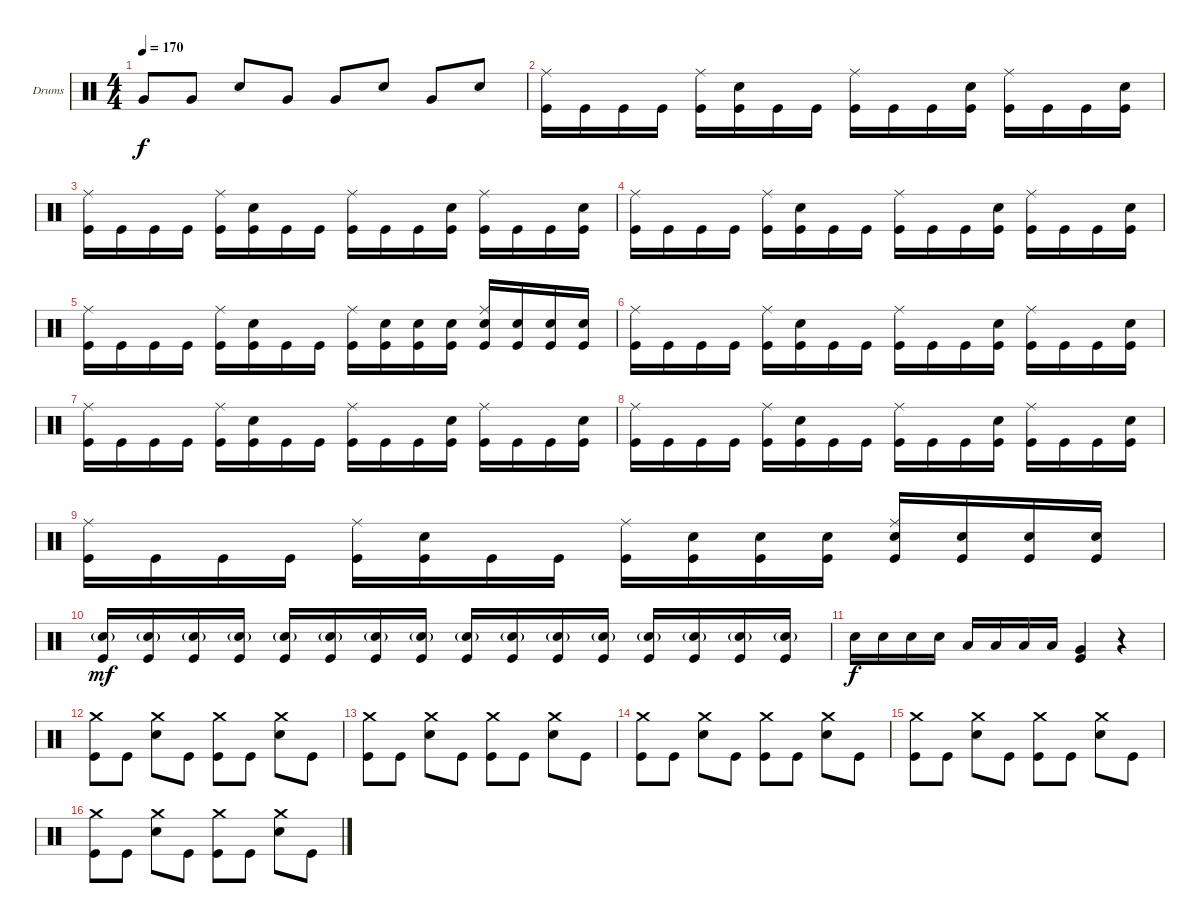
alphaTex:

\defaultSystemsLayout 4
\bracketExtendMode groupsimilarinstruments
\firstSystemTrackNameOrientation horizontal
\otherSystemsTrackNameOrientation horizontal
\track ("Drumkit" "Drums") {instrument percussion}
\staff {score}
\articulation defaults
\ts (4 4)
\tempo 170
\clef neutral
\scale
0.333333
\ks c "Very Low Tom (hit)".8{dy f} "Very Low Tom (hit)".8 "Snare (hit) 2".8 "Very Low Tom (hit)".8 "Very Low Tom (hit)".8 "Snare (hit) 2".8 "Very Low Tom (hit)".8 "Snare (hit) 2".8
|
\scale
0.333333 ("Ride (middle)" "Kick (hit)").16 "Kick (hit)".16 "Kick (hit)".16 "Kick (hit)".16 ("Ride (middle)" "Kick (hit)").16 ("Snare (hit) 2" "Kick (hit)").16 "Kick (hit)".16 "Kick (hit)".16 ("Ride (middle)" "Kick (hit)").16 "Kick (hit)".16 "Kick (hit)".16 ("Snare (hit) 2" "Kick (hit)").16 ("Ride (middle)" "Kick (hit)").16 "Kick (hit)".16 "Kick (hit)".16 ("Snare (hit) 2" "Kick (hit)").16 |
\scale
0.333333 ("Ride (middle)" "Kick (hit)").16 "Kick (hit)".16 "Kick (hit)".16 "Kick (hit)".16 ("Ride (middle)" "Kick (hit)").16 ("Snare (hit) 2" "Kick (hit)").16 "Kick (hit)".16 "Kick (hit)".16 ("Ride (middle)" "Kick (hit)").16 "Kick (hit)".16 "Kick (hit)".16 ("Snare (hit) 2" "Kick (hit)").16 ("Ride (middle)" "Kick (hit)").16 "Kick (hit)".16 "Kick (hit)".16 ("Snare (hit) 2" "Kick (hit)").16 |
\scale
0.333333 ("Ride (middle)" "Kick (hit)").16 "Kick (hit)".16 "Kick (hit)".16 "Kick (hit)".16 ("Ride (middle)" "Kick (hit)").16 ("Snare (hit) 2" "Kick (hit)").16 "Kick (hit)".16 "Kick (hit)".16 ("Ride (middle)" "Kick (hit)").16 "Kick (hit)".16 "Kick (hit)".16 ("Snare (hit) 2" "Kick (hit)").16 ("Ride (middle)" "Kick (hit)").16 "Kick (hit)".16 "Kick (hit)".16 ("Snare (hit) 2" "Kick (hit)").16 |
\scale
0.333333 ("Ride (middle)" "Kick (hit)").16 "Kick (hit)".16 "Kick (hit)".16 "Kick (hit)".16 ("Ride (middle)" "Kick (hit)").16 ("Snare (hit) 2" "Kick (hit)").16 "Kick (hit)".16 "Kick (hit)".16 ("Ride (middle)" "Kick (hit)").16 ("Kick (hit)" "Snare (hit) 2").16 ("Kick (hit)" "Snare (hit) 2").16 ("Snare (hit) 2" "Kick (hit)").16 ("Ride (middle)" "Kick (hit)" "Snare (hit) 2").16 ("Kick (hit)" "Snare (hit) 2").16 ("Kick (hit)" "Snare (hit) 2").16 ("Snare (hit) 2" "Kick (hit)").16 |
\scale
0.333333 ("Ride (middle)" "Kick (hit)").16 "Kick (hit)".16 "Kick (hit)".16 "Kick (hit)".16 ("Ride (middle)" "Kick (hit)").16 ("Snare (hit) 2" "Kick (hit)").16 "Kick (hit)".16 "Kick (hit)".16 ("Ride (middle)" "Kick (hit)").16 "Kick (hit)".16 "Kick (hit)".16 ("Snare (hit) 2" "Kick (hit)").16 ("Ride (middle)" "Kick (hit)").16 "Kick (hit)".16 "Kick (hit)".16 ("Snare (hit) 2" "Kick (hit)").16 |
\scale
0.333333 ("Ride (middle)" "Kick (hit)").16 "Kick (hit)".16 "Kick (hit)".16 "Kick (hit)".16 ("Ride (middle)" "Kick (hit)").16 ("Snare (hit) 2" "Kick (hit)").16 "Kick (hit)".16 "Kick (hit)".16 ("Ride (middle)" "Kick (hit)").16 "Kick (hit)".16 "Kick (hit)".16 ("Snare (hit) 2" "Kick (hit)").16 ("Ride (middle)" "Kick (hit)").16 "Kick (hit)".16 "Kick (hit)".16 ("Snare (hit) 2" "Kick (hit)").16 |
\scale
0.333333 ("Ride (middle)" "Kick (hit)").16 "Kick (hit)".16 "Kick (hit)".16 "Kick (hit)".16 ("Ride (middle)" "Kick (hit)").16 ("Snare (hit) 2" "Kick (hit)").16 "Kick (hit)".16 "Kick (hit)".16 ("Ride (middle)" "Kick (hit)").16 "Kick (hit)".16 "Kick (hit)".16 ("Snare (hit) 2" "Kick (hit)").16 ("Ride (middle)" "Kick (hit)").16 "Kick (hit)".16 "Kick (hit)".16 ("Snare (hit) 2" "Kick (hit)").16 |
\scale
0.333333 ("Ride (middle)" "Kick (hit)").16 "Kick (hit)".16 "Kick (hit)".16 "Kick (hit)".16 ("Ride (middle)" "Kick (hit)").16 ("Snare (hit) 2" "Kick (hit)").16 "Kick (hit)".16 "Kick (hit)".16 ("Ride (middle)" "Kick (hit)").16 ("Kick (hit)" "Snare (hit) 2").16 ("Kick (hit)" "Snare (hit) 2").16 ("Snare (hit) 2" "Kick (hit)").16 ("Ride (middle)" "Kick (hit)" "Snare (hit) 2").16 ("Kick (hit)" "Snare (hit) 2").16 ("Kick (hit)" "Snare (hit) 2").16 ("Snare (hit) 2" "Kick (hit)").16 |
\scale
0.333333 ("Snare (hit) 2"{g} "Kick (hit)").16{dy mf} ("Snare (hit) 2"{g} "Kick (hit)").16 ("Snare (hit) 2"{g} "Kick (hit)").16 ("Snare (hit) 2"{g} "Kick (hit)").16 ("Snare (hit) 2"{g} "Kick (hit)").16 ("Snare (hit) 2"{g} "Kick (hit)").16 ("Snare (hit) 2"{g} "Kick (hit)").16 ("Snare (hit) 2"{g} "Kick (hit)").16 ("Snare (hit) 2"{g} "Kick (hit)").16 ("Snare (hit) 2"{g} "Kick (hit)").16 ("Snare (hit) 2"{g} "Kick (hit)").16 ("Snare (hit) 2"{g} "Kick (hit)").16 ("Snare (hit) 2"{g} "Kick (hit)").16 ("Snare (hit) 2"{g} "Kick (hit)").16 ("Snare (hit) 2"{g} "Kick (hit)").16 ("Snare (hit) 2"{g} "Kick (hit)").16 |
\scale
0.333333 "Snare (hit) 2".16{dy f} "Snare (hit) 2".16 "Snare (hit) 2".16 "Snare (hit) 2".16 "Low Tom (hit)".16 "Low Tom (hit)".16 "Low Tom (hit)".16 "Low Tom (hit)".16 ("Very Low Tom (hit)" "Kick (hit)").4 r.4 |
\scale
0.333333 ("Crash medium (hit)" "Kick (hit)").8 "Kick (hit)".8 ("Crash medium (hit)" "Snare (hit) 2").8 "Kick (hit)".8 ("Crash medium (hit)" "Kick (hit)").8 "Kick (hit)".8 ("Crash medium (hit)" "Snare (hit) 2").8 "Kick (hit)".8 |
\scale
0.333333 ("Crash medium (hit)" "Kick (hit)").8 "Kick (hit)".8 ("Crash medium (hit)" "Snare (hit) 2").8 "Kick (hit)".8 ("Crash medium (hit)" "Kick (hit)").8 "Kick (hit)".8 ("Crash medium (hit)" "Snare (hit) 2").8 "Kick (hit)".8 |
\scale
0.333333 ("Crash medium (hit)" "Kick (hit)").8 "Kick (hit)".8 ("Crash medium (hit)" "Snare (hit) 2").8 "Kick (hit)".8 ("Crash medium (hit)" "Kick (hit)").8 "Kick (hit)".8 ("Crash medium (hit)" "Snare (hit) 2").8 "Kick (hit)".8 |
\scale
0.333333 ("Crash medium (hit)" "Kick (hit)").8 "Kick (hit)".8 ("Crash medium (hit)" "Snare (hit) 2").8 "Kick (hit)".8 ("Crash medium (hit)" "Kick (hit)").8 "Kick (hit)".8 ("Crash medium (hit)" "Snare (hit) 2").8 "Kick (hit)".8 |
\scale
0.333333 ("Crash medium (hit)" "Kick (hit)").8 "Kick (hit)".8 ("Crash medium (hit)" "Snare (hit) 2").8 "Kick (hit)".8 ("Crash medium (hit)" "Kick (hit)").8 "Kick (hit)".8 ("Crash medium (hit)" "Snare (hit) 2").8 "Kick (hit)".8
